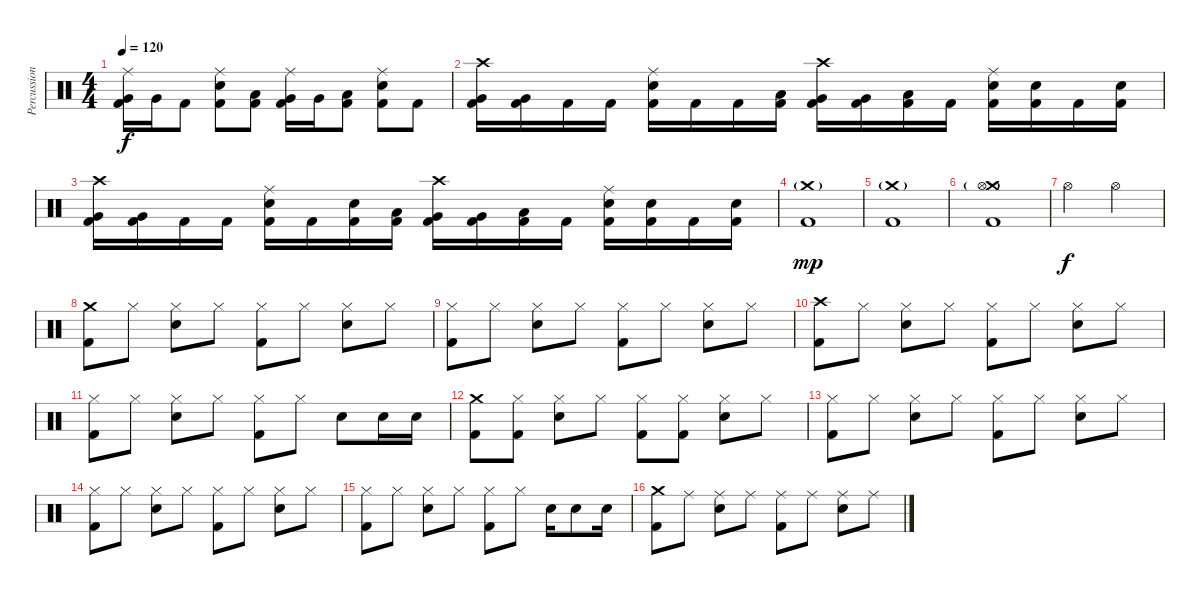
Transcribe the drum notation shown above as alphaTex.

\track ("Percussions" "Percussion") {instrument percussion}
\staff {score}
\articulation defaults
\ts (4 4)
\tempo 120
\clef neutral
\ks c
("Ride (middle)" "Very Low Tom (hit)" "Kick (hit) 2").16{dy f} "Very Low Tom (hit)".16 "Kick (hit) 2".8 ("Ride (middle)" "Electric Snare (hit)" "Kick (hit) 2").8 ("Low Tom (hit)" "Kick (hit) 2").8 ("Ride (middle)" "Very Low Tom (hit)" "Kick (hit) 2").16 "Very Low Tom (hit)".16 ("Low Floor Tom (hit)" "Kick (hit) 2").8 ("Ride (middle)" "Electric Snare (hit)" "Kick (hit) 2").8 "Kick (hit) 2".8 |
("Crash high (hit)" "Very Low Tom (hit)" "Kick (hit) 2").16 ("Very Low Tom (hit)" "Kick (hit) 2").16 "Kick (hit) 2".16 "Kick (hit) 2".16 ("Ride (middle)" "Electric Snare (hit)" "Kick (hit) 2").16 "Kick (hit) 2".16 "Kick (hit) 2".16 ("Low Tom (hit)" "Kick (hit) 2").16 ("Crash high (hit)" "Very Low Tom (hit)" "Kick (hit) 2").16 ("Very Low Tom (hit)" "Kick (hit) 2").16 ("Low Floor Tom (hit)" "Kick (hit) 2").16 "Kick (hit) 2".16 ("Ride (middle)" "Electric Snare (hit)" "Kick (hit) 2").16 ("Electric Snare (hit)" "Kick (hit) 2").16 "Kick (hit) 2".16 ("Electric Snare (hit)" "Kick (hit) 2").16 |
("Crash high (hit)" "Very Low Tom (hit)" "Kick (hit) 2").16 ("Very Low Tom (hit)" "Kick (hit) 2").16 "Kick (hit) 2".16 "Kick (hit) 2".16 ("Ride (middle)" "Electric Snare (hit)" "Kick (hit) 2").16 "Kick (hit) 2".16 ("Electric Snare (hit)" "Kick (hit) 2").16 ("Low Tom (hit)" "Kick (hit) 2").16 ("Crash high (hit)" "Very Low Tom (hit)" "Kick (hit) 2").16 ("Very Low Tom (hit)" "Kick (hit) 2").16 ("Low Floor Tom (hit)" "Kick (hit) 2").16 "Kick (hit) 2".16 ("Ride (middle)" "Electric Snare (hit)" "Kick (hit) 2").16 ("Electric Snare (hit)" "Kick (hit) 2").16 "Kick (hit) 2".16 ("Electric Snare (hit)" "Kick (hit) 2").16 |
("Crash medium (hit)"{g} "Kick (hit) 2").1{dy mp} |
("Crash medium (hit)"{g} "Kick (hit) 2").1 |
("Crash medium (hit)" "Hi-Hat (open)"{g} "Kick (hit) 2").1 |
"Hi-Hat (open)".2{dy f} "Hi-Hat (open)".2 |
("Crash medium (hit)" "Kick (hit) 2").8 "Hi-Hat (closed)".8 ("Hi-Hat (closed)" "Electric Snare (hit)").8 "Hi-Hat (closed)".8 ("Hi-Hat (closed)" "Kick (hit) 2").8 "Hi-Hat (closed)".8 ("Hi-Hat (closed)" "Electric Snare (hit)").8 "Hi-Hat (closed)".8 |
("Hi-Hat (closed)" "Kick (hit) 2").8 "Hi-Hat (closed)".8 ("Hi-Hat (closed)" "Electric Snare (hit)").8 "Hi-Hat (closed)".8 ("Hi-Hat (closed)" "Kick (hit) 2").8 "Hi-Hat (closed)".8 ("Hi-Hat (closed)" "Electric Snare (hit)").8 "Hi-Hat (closed)".8 |
("Crash high (hit)" "Kick (hit) 2").8 "Hi-Hat (closed)".8 ("Hi-Hat (closed)" "Electric Snare (hit)").8 "Hi-Hat (closed)".8 ("Hi-Hat (closed)" "Kick (hit) 2").8 "Hi-Hat (closed)".8 ("Hi-Hat (closed)" "Electric Snare (hit)").8 "Hi-Hat (closed)".8 |
("Hi-Hat (closed)" "Kick (hit) 2").8 "Hi-Hat (closed)".8 ("Hi-Hat (closed)" "Electric Snare (hit)").8 "Hi-Hat (closed)".8 ("Hi-Hat (closed)" "Kick (hit) 2").8 "Hi-Hat (closed)".8 "Electric Snare (hit)".8 "Electric Snare (hit)".16 "Electric Snare (hit)".16 |
("Crash medium (hit)" "Kick (hit) 2").8 ("Hi-Hat (closed)" "Kick (hit) 2").8 ("Hi-Hat (closed)" "Electric Snare (hit)").8 "Hi-Hat (closed)".8 ("Hi-Hat (closed)" "Kick (hit) 2").8 ("Hi-Hat (closed)" "Kick (hit) 2").8 ("Hi-Hat (closed)" "Electric Snare (hit)").8 "Hi-Hat (closed)".8 |
("Hi-Hat (closed)" "Kick (hit) 2").8 "Hi-Hat (closed)".8 ("Hi-Hat (closed)" "Electric Snare (hit)").8 "Hi-Hat (closed)".8 ("Hi-Hat (closed)" "Kick (hit) 2").8 "Hi-Hat (closed)".8 ("Hi-Hat (closed)" "Electric Snare (hit)").8 "Hi-Hat (closed)".8 |
("Hi-Hat (closed)" "Kick (hit) 2").8 "Hi-Hat (closed)".8 ("Hi-Hat (closed)" "Electric Snare (hit)").8 "Hi-Hat (closed)".8 ("Hi-Hat (closed)" "Kick (hit) 2").8 "Hi-Hat (closed)".8 ("Hi-Hat (closed)" "Electric Snare (hit)").8 "Hi-Hat (closed)".8 |
("Hi-Hat (closed)" "Kick (hit) 2").8 "Hi-Hat (closed)".8 ("Hi-Hat (closed)" "Electric Snare (hit)").8 "Hi-Hat (closed)".8 ("Hi-Hat (closed)" "Kick (hit) 2").8 "Hi-Hat (closed)".8 "Electric Snare (hit)".16 "Electric Snare (hit)".8 "Electric Snare (hit)".16 |
("Crash medium (hit)" "Kick (hit) 2").8 "Ride (middle)".8 ("Ride (middle)" "Electric Snare (hit)").8 "Ride (middle)".8 ("Ride (middle)" "Kick (hit) 2").8 "Ride (middle)".8 ("Ride (middle)" "Electric Snare (hit)").8 "Ride (middle)".8
